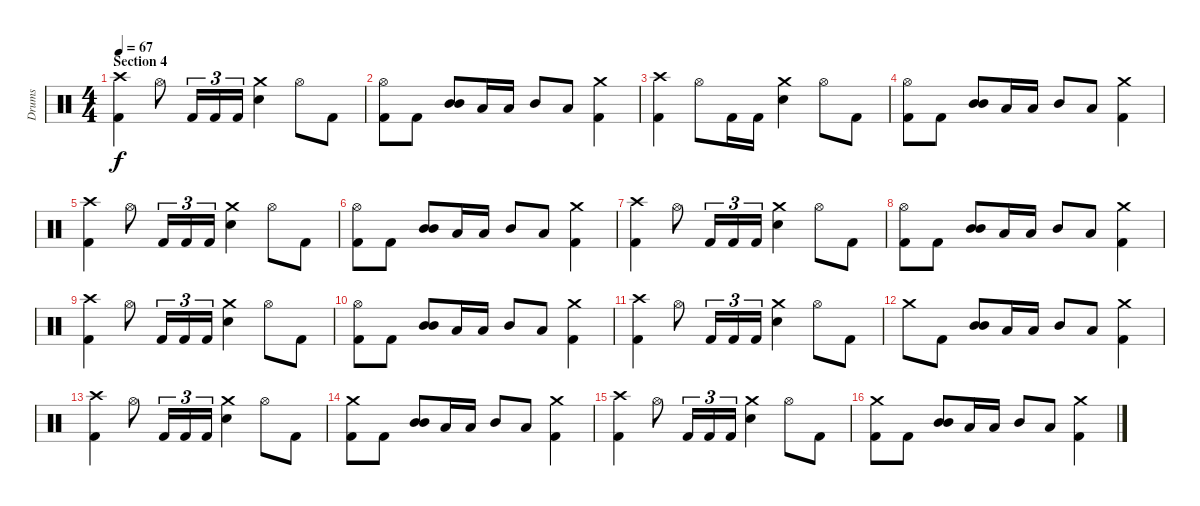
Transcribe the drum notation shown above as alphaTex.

\track ("Drums" "Drums") {instrument percussion}
\staff {score}
\articulation defaults
\ts (4 4)
\section ("" "Section 4")
\tempo 67
\clef neutral
\ks c
("Crash high (hit)" "Kick (hit) 2").4{dy f} "Hi-Hat (open)".8 "Kick (hit) 2".16{tu (3 2)} "Kick (hit) 2".16{tu (3 2)} "Kick (hit) 2".16{tu (3 2)} ("Crash medium (hit)" "Electric Snare (hit)").4 "Hi-Hat (open)".8 "Kick (hit) 2".8 |
("Hi-Hat (open)" "Kick (hit) 2").8 "Kick (hit) 2".8 ("Mid Tom (hit)" "Mid Tom (hit)").8{bu 60} "Low Tom (hit)".16 "Low Tom (hit)".16 "Mid Tom (hit)".8 "Low Tom (hit)".8 ("Crash medium (hit)" "Kick (hit) 2").4 |
("Crash high (hit)" "Kick (hit) 2").4 "Hi-Hat (open)".8 "Kick (hit) 2".16 "Kick (hit) 2".16 ("Crash medium (hit)" "Electric Snare (hit)").4 "Hi-Hat (open)".8 "Kick (hit) 2".8 |
("Hi-Hat (open)" "Kick (hit) 2").8 "Kick (hit) 2".8 ("Mid Tom (hit)" "Mid Tom (hit)").8{bu 60} "Low Tom (hit)".16 "Low Tom (hit)".16 "Mid Tom (hit)".8 "Low Tom (hit)".8 ("Crash medium (hit)" "Kick (hit) 2").4 |
("Crash high (hit)" "Kick (hit) 2").4 "Hi-Hat (open)".8 "Kick (hit) 2".16{tu (3 2)} "Kick (hit) 2".16{tu (3 2)} "Kick (hit) 2".16{tu (3 2)} ("Crash medium (hit)" "Electric Snare (hit)").4 "Hi-Hat (open)".8 "Kick (hit) 2".8 |
("Hi-Hat (open)" "Kick (hit) 2").8 "Kick (hit) 2".8 ("Mid Tom (hit)" "Mid Tom (hit)").8{bu 60} "Low Tom (hit)".16 "Low Tom (hit)".16 "Mid Tom (hit)".8 "Low Tom (hit)".8 ("Crash medium (hit)" "Kick (hit) 2").4 |
("Crash high (hit)" "Kick (hit) 2").4 "Hi-Hat (open)".8 "Kick (hit) 2".16{tu (3 2)} "Kick (hit) 2".16{tu (3 2)} "Kick (hit) 2".16{tu (3 2)} ("Crash medium (hit)" "Electric Snare (hit)").4 "Hi-Hat (open)".8 "Kick (hit) 2".8 |
("Hi-Hat (open)" "Kick (hit) 2").8 "Kick (hit) 2".8 ("Mid Tom (hit)" "Mid Tom (hit)").8{bu 60} "Low Tom (hit)".16 "Low Tom (hit)".16 "Mid Tom (hit)".8 "Low Tom (hit)".8 ("Crash medium (hit)" "Kick (hit) 2").4 |
("Crash high (hit)" "Kick (hit) 2").4 "Hi-Hat (open)".8 "Kick (hit) 2".16{tu (3 2)} "Kick (hit) 2".16{tu (3 2)} "Kick (hit) 2".16{tu (3 2)} ("Crash medium (hit)" "Electric Snare (hit)").4 "Hi-Hat (open)".8 "Kick (hit) 2".8 |
("Hi-Hat (open)" "Kick (hit) 2").8 "Kick (hit) 2".8 ("Mid Tom (hit)" "Mid Tom (hit)").8{bu 60} "Low Tom (hit)".16 "Low Tom (hit)".16 "Mid Tom (hit)".8 "Low Tom (hit)".8 ("Crash medium (hit)" "Kick (hit) 2").4 |
("Crash high (hit)" "Kick (hit) 2").4 "Hi-Hat (open)".8 "Kick (hit) 2".16{tu (3 2)} "Kick (hit) 2".16{tu (3 2)} "Kick (hit) 2".16{tu (3 2)} ("Crash medium (hit)" "Electric Snare (hit)").4 "Hi-Hat (open)".8 "Kick (hit) 2".8 |
"Crash medium (hit)".8 "Kick (hit) 2".8 ("Mid Tom (hit)" "Mid Tom (hit)").8{bu 60} "Low Tom (hit)".16 "Low Tom (hit)".16 "Mid Tom (hit)".8 "Low Tom (hit)".8 ("Crash medium (hit)" "Kick (hit) 2").4 |
("Crash high (hit)" "Kick (hit) 2").4 "Hi-Hat (open)".8 "Kick (hit) 2".16{tu (3 2)} "Kick (hit) 2".16{tu (3 2)} "Kick (hit) 2".16{tu (3 2)} ("Crash medium (hit)" "Electric Snare (hit)").4 "Hi-Hat (open)".8 "Kick (hit) 2".8 |
("Crash medium (hit)" "Kick (hit) 2").8 "Kick (hit) 2".8 ("Mid Tom (hit)" "Mid Tom (hit)").8{bu 60} "Low Tom (hit)".16 "Low Tom (hit)".16 "Mid Tom (hit)".8 "Low Tom (hit)".8 ("Crash medium (hit)" "Kick (hit) 2").4 |
("Crash high (hit)" "Kick (hit) 2").4 "Hi-Hat (open)".8 "Kick (hit) 2".16{tu (3 2)} "Kick (hit) 2".16{tu (3 2)} "Kick (hit) 2".16{tu (3 2)} ("Crash medium (hit)" "Electric Snare (hit)").4 "Hi-Hat (open)".8 "Kick (hit) 2".8 |
("Crash medium (hit)" "Kick (hit) 2").8 "Kick (hit) 2".8 ("Mid Tom (hit)" "Mid Tom (hit)").8{bu 60} "Low Tom (hit)".16 "Low Tom (hit)".16 "Mid Tom (hit)".8 "Low Tom (hit)".8 ("Crash medium (hit)" "Kick (hit) 2").4
